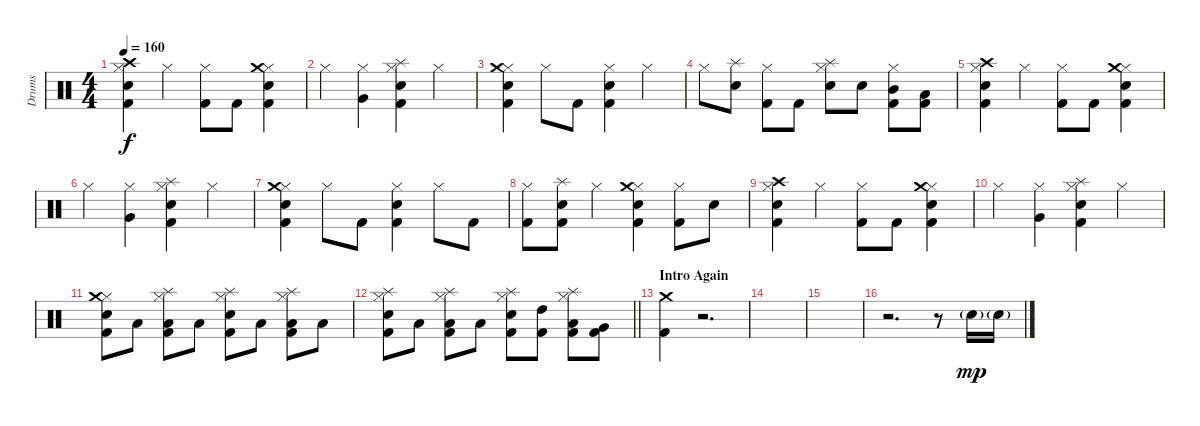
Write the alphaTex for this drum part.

\track ("Drums" "Drums") {instrument percussion}
\staff {score}
\articulation defaults
\ts (4 4)
\tempo 160
\clef neutral
\ks c
("Hi-Hat (closed)" "Crash high (hit)" "Snare (hit) 2" "Kick (hit) 2").4{dy f} "Hi-Hat (closed)".4 ("Hi-Hat (closed)" "Kick (hit) 2").8 "Kick (hit) 2".8 ("Hi-Hat (closed)" "Crash medium (hit)" "Snare (hit) 2" "Kick (hit) 2").4 |
"Hi-Hat (closed)".4 ("Hi-Hat (closed)" "Very Low Tom (hit)").4 ("Hi-Hat (closed)" "Splash (hit)" "Snare (hit) 2" "Kick (hit) 2").4 "Hi-Hat (closed)".4 |
("Hi-Hat (closed)" "Crash medium (hit)" "Snare (hit) 2" "Kick (hit) 2").4 "Hi-Hat (closed)".8 "Kick (hit) 2".8 ("Hi-Hat (closed)" "Snare (hit) 2" "Kick (hit) 2").4 "Hi-Hat (closed)".4 |
"Hi-Hat (closed)".8 ("Splash (hit)" "Snare (hit) 2").8 ("Hi-Hat (closed)" "Kick (hit) 2").8 "Kick (hit) 2".8 ("Hi-Hat (closed)" "Splash (hit)" "Snare (hit) 2").8 "Snare (hit) 2".8 ("Hi-Hat (closed)" "Mid Tom (hit)" "Kick (hit) 2").8 ("Low Tom (hit)" "Kick (hit) 2").8 |
("Hi-Hat (closed)" "Crash high (hit)" "Snare (hit) 2" "Kick (hit) 2").4 "Hi-Hat (closed)".4 ("Hi-Hat (closed)" "Kick (hit) 2").8 "Kick (hit) 2".8 ("Hi-Hat (closed)" "Crash medium (hit)" "Snare (hit) 2" "Kick (hit) 2").4 |
"Hi-Hat (closed)".4 ("Hi-Hat (closed)" "Very Low Tom (hit)").4 ("Hi-Hat (closed)" "Splash (hit)" "Snare (hit) 2" "Kick (hit) 2").4 "Hi-Hat (closed)".4 |
("Hi-Hat (closed)" "Crash medium (hit)" "Snare (hit) 2" "Kick (hit) 2").4 "Hi-Hat (closed)".8 "Kick (hit) 2".8 ("Hi-Hat (closed)" "Snare (hit) 2" "Kick (hit) 2").4 "Hi-Hat (closed)".8 "Kick (hit) 2".8 |
("Hi-Hat (closed)" "Kick (hit) 2").8 ("Splash (hit)" "Snare (hit) 2" "Kick (hit) 2").8 "Hi-Hat (closed)".4 ("Hi-Hat (closed)" "Crash medium (hit)" "Snare (hit) 2" "Kick (hit) 2").4 ("Hi-Hat (closed)" "Kick (hit) 2").8 "Snare (hit) 2".8 |
("Hi-Hat (closed)" "Crash high (hit)" "Snare (hit) 2" "Kick (hit) 2").4 "Hi-Hat (closed)".4 ("Hi-Hat (closed)" "Kick (hit) 2").8 "Kick (hit) 2".8 ("Hi-Hat (closed)" "Crash medium (hit)" "Snare (hit) 2" "Kick (hit) 2").4 |
"Hi-Hat (closed)".4 ("Hi-Hat (closed)" "Very Low Tom (hit)").4 ("Hi-Hat (closed)" "Splash (hit)" "Snare (hit) 2" "Kick (hit) 2").4 "Hi-Hat (closed)".4 |
("Hi-Hat (closed)" "Crash medium (hit)" "Snare (hit) 2" "Kick (hit) 2").8 "Low Floor Tom (hit)".8 ("Hi-Hat (closed)" "Splash (hit)" "Low Floor Tom (hit)" "Kick (hit) 2").8 "Low Floor Tom (hit)".8 ("Hi-Hat (closed)" "Splash (hit)" "Snare (hit) 2" "Kick (hit) 2").8 "Low Floor Tom (hit)".8 ("Hi-Hat (closed)" "Splash (hit)" "Low Floor Tom (hit)" "Kick (hit) 2").8 "Low Floor Tom (hit)".8 |
\barLineRight lightlight
("Hi-Hat (closed)" "Splash (hit)" "Snare (hit) 2" "Kick (hit) 2").8 "Low Floor Tom (hit)".8 ("Hi-Hat (closed)" "Splash (hit)" "Low Floor Tom (hit)" "Kick (hit) 2").8 "Low Floor Tom (hit)".8 ("Hi-Hat (closed)" "Splash (hit)" "Snare (hit) 2" "Kick (hit) 2").8 ("High Tom (hit)" "Kick (hit) 2").8 ("Hi-Hat (closed)" "Splash (hit)" "Low Tom (hit)" "Kick (hit) 2").8 ("Very Low Tom (hit)" "Kick (hit) 2").8 |
\section ("" "Intro Again")
("Crash medium (hit)" "Kick (hit) 2").4 r.2{d} |
|
|
r.2{d} r.8 "Snare (hit) 2"{g}.16{dy mp} "Snare (hit) 2"{g}.16
